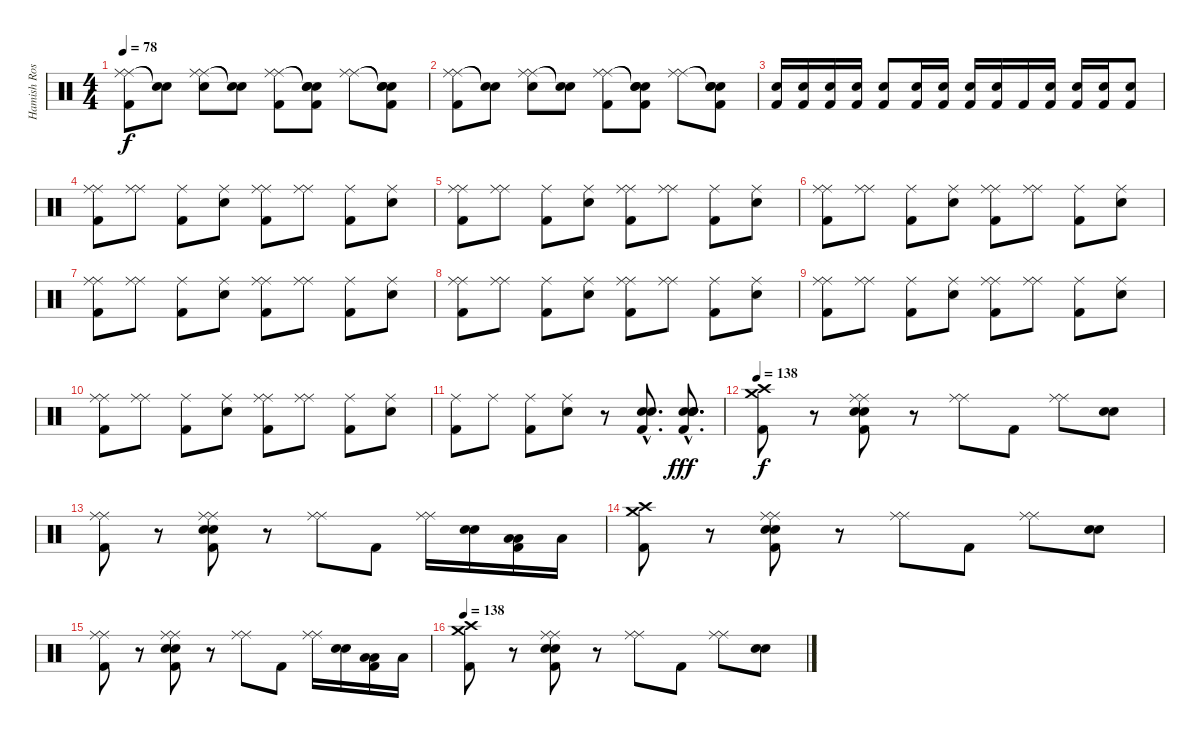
\track ("Hamish Rosser" "Hamish Ros") {instrument percussion}
\staff {score}
\articulation defaults
\ts (4 4)
\tempo 78
\clef neutral
\ks c
("Ride (middle)" "Ride (middle)" "Kick (hit) 2").8{dy f} ("Snare (hit)"{t} "Snare (hit)"{t}).8 ("Ride (middle)" "Ride (middle)" "Snare (hit) 2").8 ("Snare (hit)"{t} "Snare (hit)"{t}).8 ("Ride (middle)" "Ride (middle)" "Kick (hit) 2").8 ("Snare (hit)"{t} "Snare (hit)"{t} "Snare (hit) 2" "Kick (hit) 2").8 ("Ride (middle)" "Ride (middle)").8 ("Snare (hit)"{t} "Snare (hit)"{t} "Snare (hit) 2" "Kick (hit) 2").8 |
("Ride (middle)" "Ride (middle)" "Kick (hit) 2").8 ("Snare (hit)"{t} "Snare (hit)"{t}).8 ("Ride (middle)" "Ride (middle)" "Snare (hit) 2").8 ("Snare (hit)"{t} "Snare (hit)"{t}).8 ("Ride (middle)" "Ride (middle)" "Kick (hit) 2").8 ("Snare (hit)"{t} "Snare (hit)"{t} "Snare (hit) 2" "Kick (hit) 2").8 ("Ride (middle)" "Ride (middle)").8 ("Snare (hit)"{t} "Snare (hit)"{t} "Snare (hit) 2" "Kick (hit) 2").8 |
("Snare (hit) 2" "Kick (hit) 2").16 ("Snare (hit) 2" "Kick (hit) 2").16 ("Snare (hit) 2" "Kick (hit) 2").16 ("Snare (hit) 2" "Kick (hit) 2").16 ("Snare (hit) 2" "Kick (hit) 2").8 ("Snare (hit) 2" "Kick (hit) 2").16 ("Snare (hit) 2" "Kick (hit) 2").16 ("Snare (hit) 2" "Kick (hit) 2").16 ("Snare (hit) 2" "Kick (hit) 2").16 "Kick (hit) 2".16 ("Snare (hit) 2" "Kick (hit) 2").16 ("Snare (hit) 2" "Kick (hit) 2").16 ("Snare (hit) 2" "Kick (hit) 2").16 ("Snare (hit) 2" "Kick (hit) 2").8 |
("Ride (middle)" "Ride (middle)" "Kick (hit) 2").8 ("Ride (middle)" "Ride (middle)").8 ("Ride (middle)" "Kick (hit) 2").8 ("Ride (middle)" "Snare (hit) 2").8 ("Ride (middle)" "Ride (middle)" "Kick (hit) 2").8 ("Ride (middle)" "Ride (middle)").8 ("Ride (middle)" "Kick (hit) 2").8 ("Ride (middle)" "Snare (hit) 2").8 |
("Ride (middle)" "Ride (middle)" "Kick (hit) 2").8 ("Ride (middle)" "Ride (middle)").8 ("Ride (middle)" "Kick (hit) 2").8 ("Ride (middle)" "Snare (hit) 2").8 ("Ride (middle)" "Ride (middle)" "Kick (hit) 2").8 ("Ride (middle)" "Ride (middle)").8 ("Ride (middle)" "Kick (hit) 2").8 ("Ride (middle)" "Snare (hit) 2").8 |
("Ride (middle)" "Ride (middle)" "Kick (hit) 2").8 ("Ride (middle)" "Ride (middle)").8 ("Ride (middle)" "Kick (hit) 2").8 ("Ride (middle)" "Snare (hit) 2").8 ("Ride (middle)" "Ride (middle)" "Kick (hit) 2").8 ("Ride (middle)" "Ride (middle)").8 ("Ride (middle)" "Kick (hit) 2").8 ("Ride (middle)" "Snare (hit) 2").8 |
("Ride (middle)" "Ride (middle)" "Kick (hit) 2").8 ("Ride (middle)" "Ride (middle)").8 ("Ride (middle)" "Kick (hit) 2").8 ("Ride (middle)" "Snare (hit) 2").8 ("Ride (middle)" "Ride (middle)" "Kick (hit) 2").8 ("Ride (middle)" "Ride (middle)").8 ("Ride (middle)" "Kick (hit) 2").8 ("Ride (middle)" "Snare (hit) 2").8 |
("Ride (middle)" "Ride (middle)" "Kick (hit) 2").8 ("Ride (middle)" "Ride (middle)").8 ("Ride (middle)" "Kick (hit) 2").8 ("Ride (middle)" "Snare (hit) 2").8 ("Ride (middle)" "Ride (middle)" "Kick (hit) 2").8 ("Ride (middle)" "Ride (middle)").8 ("Ride (middle)" "Kick (hit) 2").8 ("Ride (middle)" "Snare (hit) 2").8 |
("Ride (middle)" "Ride (middle)" "Kick (hit) 2").8 ("Ride (middle)" "Ride (middle)").8 ("Ride (middle)" "Kick (hit) 2").8 ("Ride (middle)" "Snare (hit) 2").8 ("Ride (middle)" "Ride (middle)" "Kick (hit) 2").8 ("Ride (middle)" "Ride (middle)").8 ("Ride (middle)" "Kick (hit) 2").8 ("Ride (middle)" "Snare (hit) 2").8 |
("Ride (middle)" "Ride (middle)" "Kick (hit) 2").8 ("Ride (middle)" "Ride (middle)").8 ("Ride (middle)" "Kick (hit) 2").8 ("Ride (middle)" "Snare (hit) 2").8 ("Ride (middle)" "Ride (middle)" "Kick (hit) 2").8 ("Ride (middle)" "Ride (middle)").8 ("Ride (middle)" "Kick (hit) 2").8 ("Ride (middle)" "Snare (hit) 2").8 |
("Ride (middle)" "Kick (hit) 2").8 "Ride (middle)".8 ("Ride (middle)" "Kick (hit) 2").8 ("Ride (middle)" "Snare (hit) 2").8 r.8 ("Snare (hit) 2"{hac} "Snare (hit) 2"{hac} "Kick (hit) 2"{hac}).8{d} ("Snare (hit) 2"{hac} "Snare (hit) 2"{hac} "Snare (hit) 2"{hac} "Snare (hit) 2"{hac} "Kick (hit) 2"{hac}).8{d dy fff} |
\tempo 138
("Crash high (hit)" "Crash medium (hit)" "Kick (hit) 2").8{dy f} r.8 ("Ride (middle)" "Ride (middle)" "Snare (hit) 2" "Snare (hit) 2" "Kick (hit) 2").8 r.8 ("Ride (middle)" "Ride (middle)").8 "Kick (hit) 2".8 ("Ride (middle)" "Ride (middle)").8 ("Snare (hit) 2" "Snare (hit) 2").8 |
("Ride (middle)" "Ride (middle)" "Kick (hit) 2").8 r.8 ("Ride (middle)" "Ride (middle)" "Snare (hit) 2" "Snare (hit) 2" "Kick (hit) 2").8 r.8 ("Ride (middle)" "Ride (middle)").8 "Kick (hit) 2".8 ("Ride (middle)" "Ride (middle)").16 ("Snare (hit) 2" "Snare (hit) 2").16 ("Low Tom (hit)" "Low Tom (hit)" "Kick (hit) 2").16 "Low Tom (hit)".16 |
("Crash high (hit)" "Crash medium (hit)" "Kick (hit) 2").8 r.8 ("Ride (middle)" "Ride (middle)" "Snare (hit) 2" "Snare (hit) 2" "Kick (hit) 2").8 r.8 ("Ride (middle)" "Ride (middle)").8 "Kick (hit) 2".8 ("Ride (middle)" "Ride (middle)").8 ("Snare (hit) 2" "Snare (hit) 2").8 |
("Ride (middle)" "Ride (middle)" "Kick (hit) 2").8 r.8 ("Ride (middle)" "Ride (middle)" "Snare (hit) 2" "Snare (hit) 2" "Kick (hit) 2").8 r.8 ("Ride (middle)" "Ride (middle)").8 "Kick (hit) 2".8 ("Ride (middle)" "Ride (middle)").16 ("Snare (hit) 2" "Snare (hit) 2").16 ("Low Tom (hit)" "Low Tom (hit)" "Kick (hit) 2").16 "Low Tom (hit)".16 |
\tempo 138
("Crash high (hit)" "Crash medium (hit)" "Kick (hit) 2").8 r.8 ("Ride (middle)" "Ride (middle)" "Snare (hit) 2" "Snare (hit) 2" "Kick (hit) 2").8 r.8 ("Ride (middle)" "Ride (middle)").8 "Kick (hit) 2".8 ("Ride (middle)" "Ride (middle)").8 ("Snare (hit) 2" "Snare (hit) 2").8
